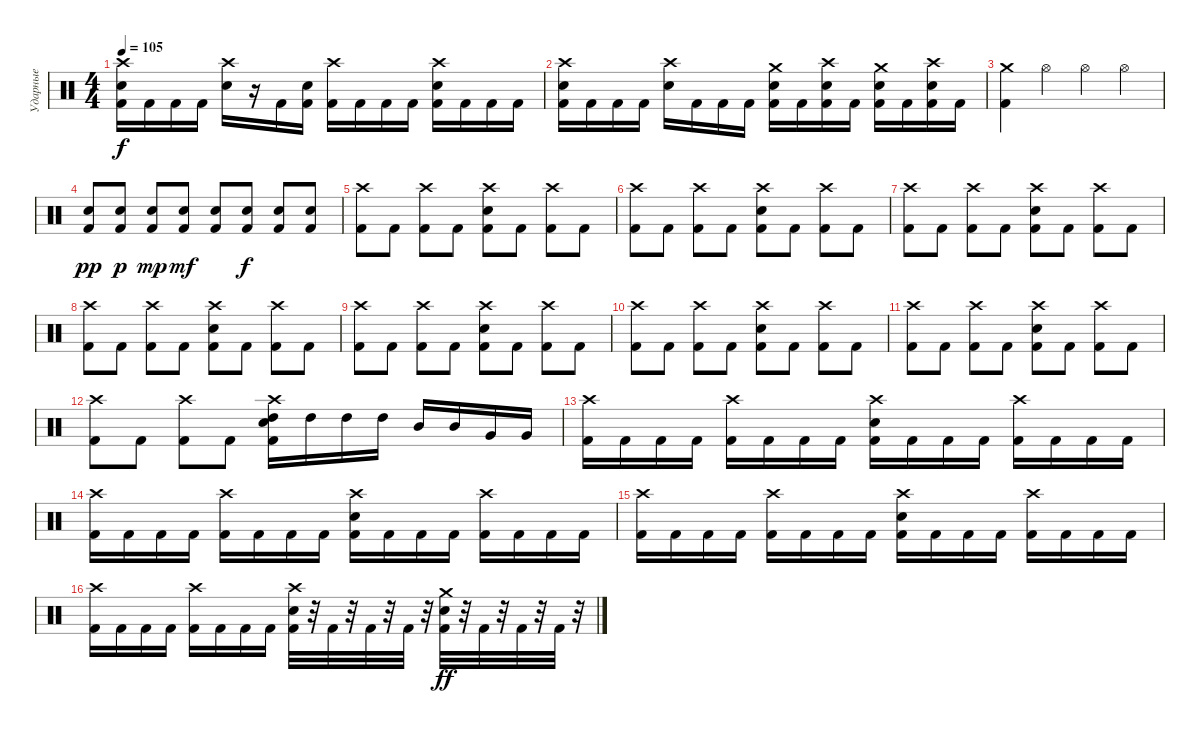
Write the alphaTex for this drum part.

\track ("Ударные" "Ударные") {instrument percussion}
\staff
\articulation defaults
\ts (4 4)
\tempo 105
\clef neutral
\ks c
("Crash high (hit)" "Electric Snare (hit)" "Kick (hit) 2").16{dy f} "Kick (hit) 2".16 "Kick (hit) 2".16 "Kick (hit) 2".16 ("Crash high (hit)" "Electric Snare (hit)").16 r.16 "Kick (hit) 2".16 ("Electric Snare (hit)" "Kick (hit) 2").16 ("Crash high (hit)" "Kick (hit) 2").16 "Kick (hit) 2".16 "Kick (hit) 2".16 "Kick (hit) 2".16 ("Crash high (hit)" "Electric Snare (hit)" "Kick (hit) 2").16 "Kick (hit) 2".16 "Kick (hit) 2".16 "Kick (hit) 2".16 |
("Crash high (hit)" "Electric Snare (hit)" "Kick (hit) 2").16 "Kick (hit) 2".16 "Kick (hit) 2".16 "Kick (hit) 2".16 ("Crash high (hit)" "Electric Snare (hit)").16 "Kick (hit) 2".16 "Kick (hit) 2".16 "Kick (hit) 2".16 ("Crash medium (hit)" "Electric Snare (hit)" "Kick (hit) 2").16 "Kick (hit) 2".16 ("Crash high (hit)" "Electric Snare (hit)" "Kick (hit) 2").16 "Kick (hit) 2".16 ("Crash medium (hit)" "Electric Snare (hit)" "Kick (hit) 2").16 "Kick (hit) 2".16 ("Crash high (hit)" "Electric Snare (hit)" "Kick (hit) 2").16 "Kick (hit) 2".16 |
("Crash medium (hit)" "Kick (hit) 2").4 "Hi-Hat (open)".4 "Hi-Hat (open)".4 "Hi-Hat (open)".4 |
("Kick (hit) 2" "Electric Snare (hit)").8{dy pp} ("Kick (hit) 2" "Electric Snare (hit)").8{dy p} ("Kick (hit) 2" "Electric Snare (hit)").8{dy mp} ("Kick (hit) 2" "Electric Snare (hit)").8{dy mf} ("Kick (hit) 2" "Electric Snare (hit)").8 ("Kick (hit) 2" "Electric Snare (hit)").8{dy f} ("Kick (hit) 2" "Electric Snare (hit)").8 ("Kick (hit) 2" "Electric Snare (hit)").8 |
("Crash high (hit)" "Kick (hit) 2").8 "Kick (hit) 2".8 ("Crash high (hit)" "Kick (hit) 2").8 "Kick (hit) 2".8 ("Crash high (hit)" "Electric Snare (hit)" "Kick (hit) 2").8 "Kick (hit) 2".8 ("Crash high (hit)" "Kick (hit) 2").8 "Kick (hit) 2".8 |
("Crash high (hit)" "Kick (hit) 2").8 "Kick (hit) 2".8 ("Crash high (hit)" "Kick (hit) 2").8 "Kick (hit) 2".8 ("Crash high (hit)" "Electric Snare (hit)" "Kick (hit) 2").8 "Kick (hit) 2".8 ("Crash high (hit)" "Kick (hit) 2").8 "Kick (hit) 2".8 |
("Crash high (hit)" "Kick (hit) 2").8 "Kick (hit) 2".8 ("Crash high (hit)" "Kick (hit) 2").8 "Kick (hit) 2".8 ("Crash high (hit)" "Electric Snare (hit)" "Kick (hit) 2").8 "Kick (hit) 2".8 ("Crash high (hit)" "Kick (hit) 2").8 "Kick (hit) 2".8 |
("Crash high (hit)" "Kick (hit) 2").8 "Kick (hit) 2".8 ("Crash high (hit)" "Kick (hit) 2").8 "Kick (hit) 2".8 ("Crash high (hit)" "Electric Snare (hit)" "Kick (hit) 2").8 "Kick (hit) 2".8 ("Crash high (hit)" "Kick (hit) 2").8 "Kick (hit) 2".8 |
("Crash high (hit)" "Kick (hit) 2").8 "Kick (hit) 2".8 ("Crash high (hit)" "Kick (hit) 2").8 "Kick (hit) 2".8 ("Crash high (hit)" "Electric Snare (hit)" "Kick (hit) 2").8 "Kick (hit) 2".8 ("Crash high (hit)" "Kick (hit) 2").8 "Kick (hit) 2".8 |
("Crash high (hit)" "Kick (hit) 2").8 "Kick (hit) 2".8 ("Crash high (hit)" "Kick (hit) 2").8 "Kick (hit) 2".8 ("Crash high (hit)" "Electric Snare (hit)" "Kick (hit) 2").8 "Kick (hit) 2".8 ("Crash high (hit)" "Kick (hit) 2").8 "Kick (hit) 2".8 |
("Crash high (hit)" "Kick (hit) 2").8 "Kick (hit) 2".8 ("Crash high (hit)" "Kick (hit) 2").8 "Kick (hit) 2".8 ("Crash high (hit)" "Electric Snare (hit)" "Kick (hit) 2").8 "Kick (hit) 2".8 ("Crash high (hit)" "Kick (hit) 2").8 "Kick (hit) 2".8 |
("Crash high (hit)" "Kick (hit) 2").8 "Kick (hit) 2".8 ("Crash high (hit)" "Kick (hit) 2").8 "Kick (hit) 2".8 ("Crash high (hit)" "High Tom (hit)" "Electric Snare (hit)" "Kick (hit) 2").16 "High Tom (hit)".16 "High Tom (hit)".16 "High Tom (hit)".16 "Mid Tom (hit)".16 "Mid Tom (hit)".16 "Very Low Tom (hit)".16 "Very Low Tom (hit)".16 |
("Crash high (hit)" "Kick (hit) 2").16 "Kick (hit) 2".16 "Kick (hit) 2".16 "Kick (hit) 2".16 ("Crash high (hit)" "Kick (hit) 2").16 "Kick (hit) 2".16 "Kick (hit) 2".16 "Kick (hit) 2".16 ("Crash high (hit)" "Electric Snare (hit)" "Kick (hit) 2").16 "Kick (hit) 2".16 "Kick (hit) 2".16 "Kick (hit) 2".16 ("Crash high (hit)" "Kick (hit) 2").16 "Kick (hit) 2".16 "Kick (hit) 2".16 "Kick (hit) 2".16 |
("Crash high (hit)" "Kick (hit) 2").16 "Kick (hit) 2".16 "Kick (hit) 2".16 "Kick (hit) 2".16 ("Crash high (hit)" "Kick (hit) 2").16 "Kick (hit) 2".16 "Kick (hit) 2".16 "Kick (hit) 2".16 ("Crash high (hit)" "Electric Snare (hit)" "Kick (hit) 2").16 "Kick (hit) 2".16 "Kick (hit) 2".16 "Kick (hit) 2".16 ("Crash high (hit)" "Kick (hit) 2").16 "Kick (hit) 2".16 "Kick (hit) 2".16 "Kick (hit) 2".16 |
("Crash high (hit)" "Kick (hit) 2").16 "Kick (hit) 2".16 "Kick (hit) 2".16 "Kick (hit) 2".16 ("Crash high (hit)" "Kick (hit) 2").16 "Kick (hit) 2".16 "Kick (hit) 2".16 "Kick (hit) 2".16 ("Crash high (hit)" "Electric Snare (hit)" "Kick (hit) 2").16 "Kick (hit) 2".16 "Kick (hit) 2".16 "Kick (hit) 2".16 ("Crash high (hit)" "Kick (hit) 2").16 "Kick (hit) 2".16 "Kick (hit) 2".16 "Kick (hit) 2".16 |
("Crash high (hit)" "Kick (hit) 2").16 "Kick (hit) 2".16 "Kick (hit) 2".16 "Kick (hit) 2".16 ("Crash high (hit)" "Kick (hit) 2").16 "Kick (hit) 2".16 "Kick (hit) 2".16 "Kick (hit) 2".16 ("Crash high (hit)" "Electric Snare (hit)" "Kick (hit) 2").32 r.32 "Kick (hit) 2".32 r.32 "Kick (hit) 2".32 r.32 "Kick (hit) 2".32 r.32 ("Crash medium (hit)" "Electric Snare (hit)" "Kick (hit) 2").32{dy ff} r.32 "Kick (hit) 2".32 r.32 "Kick (hit) 2".32 r.32 "Kick (hit) 2".32 r.32
